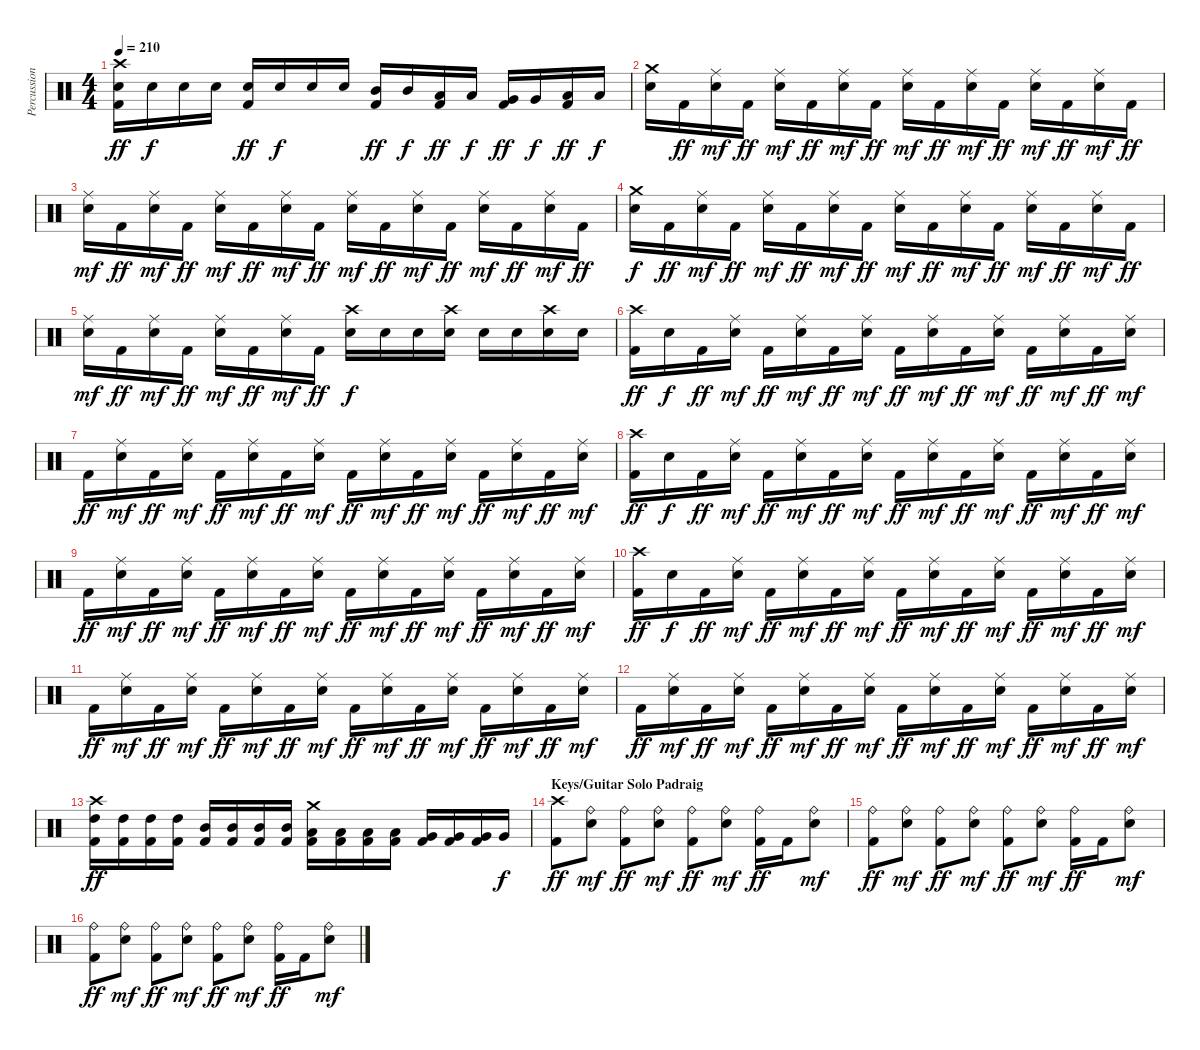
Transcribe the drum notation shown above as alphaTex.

\track ("Percussion" "Percussion") {instrument percussion}
\staff {score}
\articulation defaults
\ts (4 4)
\tempo 210
\clef neutral
\ks c
("Crash high (hit)" "Snare (hit) 2" "Kick (hit) 2").16{dy ff} "Snare (hit) 2".16{dy f} "Snare (hit) 2".16 "Snare (hit) 2".16 ("Snare (hit) 2" "Kick (hit) 2").16{dy ff} "Snare (hit) 2".16{dy f} "Snare (hit) 2".16 "Snare (hit) 2".16 ("Mid Tom (hit)" "Kick (hit) 2").16{dy ff} "Mid Tom (hit)".16{dy f} ("Low Tom (hit)" "Kick (hit) 2").16{dy ff} "Low Tom (hit)".16{dy f} ("Very Low Tom (hit)" "Kick (hit) 2").16{dy ff} "Very Low Tom (hit)".16{dy f} ("Low Floor Tom (hit)" "Kick (hit) 2").16{dy ff} "Low Floor Tom (hit)".16{dy f} |
("Crash medium (hit)" "Snare (hit) 2").16 "Kick (hit) 2".16{dy ff} ("Ride (middle)" "Snare (hit) 2").16{dy mf} "Kick (hit) 2".16{dy ff} ("Ride (middle)" "Snare (hit) 2").16{dy mf} "Kick (hit) 2".16{dy ff} ("Ride (middle)" "Snare (hit) 2").16{dy mf} "Kick (hit) 2".16{dy ff} ("Ride (middle)" "Snare (hit) 2").16{dy mf} "Kick (hit) 2".16{dy ff} ("Ride (middle)" "Snare (hit) 2").16{dy mf} "Kick (hit) 2".16{dy ff} ("Ride (middle)" "Snare (hit) 2").16{dy mf} "Kick (hit) 2".16{dy ff} ("Ride (middle)" "Snare (hit) 2").16{dy mf} "Kick (hit) 2".16{dy ff} |
("Ride (middle)" "Snare (hit) 2").16{dy mf} "Kick (hit) 2".16{dy ff} ("Ride (middle)" "Snare (hit) 2").16{dy mf} "Kick (hit) 2".16{dy ff} ("Ride (middle)" "Snare (hit) 2").16{dy mf} "Kick (hit) 2".16{dy ff} ("Ride (middle)" "Snare (hit) 2").16{dy mf} "Kick (hit) 2".16{dy ff} ("Ride (middle)" "Snare (hit) 2").16{dy mf} "Kick (hit) 2".16{dy ff} ("Ride (middle)" "Snare (hit) 2").16{dy mf} "Kick (hit) 2".16{dy ff} ("Ride (middle)" "Snare (hit) 2").16{dy mf} "Kick (hit) 2".16{dy ff} ("Ride (middle)" "Snare (hit) 2").16{dy mf} "Kick (hit) 2".16{dy ff} |
("Crash medium (hit)" "Snare (hit) 2").16{dy f} "Kick (hit) 2".16{dy ff} ("Ride (middle)" "Snare (hit) 2").16{dy mf} "Kick (hit) 2".16{dy ff} ("Ride (middle)" "Snare (hit) 2").16{dy mf} "Kick (hit) 2".16{dy ff} ("Ride (middle)" "Snare (hit) 2").16{dy mf} "Kick (hit) 2".16{dy ff} ("Ride (middle)" "Snare (hit) 2").16{dy mf} "Kick (hit) 2".16{dy ff} ("Ride (middle)" "Snare (hit) 2").16{dy mf} "Kick (hit) 2".16{dy ff} ("Ride (middle)" "Snare (hit) 2").16{dy mf} "Kick (hit) 2".16{dy ff} ("Ride (middle)" "Snare (hit) 2").16{dy mf} "Kick (hit) 2".16{dy ff} |
("Ride (middle)" "Snare (hit) 2").16{dy mf} "Kick (hit) 2".16{dy ff} ("Ride (middle)" "Snare (hit) 2").16{dy mf} "Kick (hit) 2".16{dy ff} ("Ride (middle)" "Snare (hit) 2").16{dy mf} "Kick (hit) 2".16{dy ff} ("Ride (middle)" "Snare (hit) 2").16{dy mf} "Kick (hit) 2".16{dy ff} ("Crash high (hit)" "Snare (hit) 2").16{dy f} "Snare (hit) 2".16 "Snare (hit) 2".16 ("Crash high (hit)" "Snare (hit) 2").16 "Snare (hit) 2".16 "Snare (hit) 2".16 ("Crash high (hit)" "Snare (hit) 2").16 "Snare (hit) 2".16 |
("Crash high (hit)" "Kick (hit) 2").16{dy ff} "Snare (hit) 2".16{dy f} "Kick (hit) 2".16{dy ff} ("Ride (middle)" "Snare (hit) 2").16{dy mf} "Kick (hit) 2".16{dy ff} ("Ride (middle)" "Snare (hit) 2").16{dy mf} "Kick (hit) 2".16{dy ff} ("Ride (middle)" "Snare (hit) 2").16{dy mf} "Kick (hit) 2".16{dy ff} ("Ride (middle)" "Snare (hit) 2").16{dy mf} "Kick (hit) 2".16{dy ff} ("Ride (middle)" "Snare (hit) 2").16{dy mf} "Kick (hit) 2".16{dy ff} ("Ride (middle)" "Snare (hit) 2").16{dy mf} "Kick (hit) 2".16{dy ff} ("Ride (middle)" "Snare (hit) 2").16{dy mf} |
"Kick (hit) 2".16{dy ff} ("Ride (middle)" "Snare (hit) 2").16{dy mf} "Kick (hit) 2".16{dy ff} ("Ride (middle)" "Snare (hit) 2").16{dy mf} "Kick (hit) 2".16{dy ff} ("Ride (middle)" "Snare (hit) 2").16{dy mf} "Kick (hit) 2".16{dy ff} ("Ride (middle)" "Snare (hit) 2").16{dy mf} "Kick (hit) 2".16{dy ff} ("Ride (middle)" "Snare (hit) 2").16{dy mf} "Kick (hit) 2".16{dy ff} ("Ride (middle)" "Snare (hit) 2").16{dy mf} "Kick (hit) 2".16{dy ff} ("Ride (middle)" "Snare (hit) 2").16{dy mf} "Kick (hit) 2".16{dy ff} ("Ride (middle)" "Snare (hit) 2").16{dy mf} |
("Crash high (hit)" "Kick (hit) 2").16{dy ff} "Snare (hit) 2".16{dy f} "Kick (hit) 2".16{dy ff} ("Ride (middle)" "Snare (hit) 2").16{dy mf} "Kick (hit) 2".16{dy ff} ("Ride (middle)" "Snare (hit) 2").16{dy mf} "Kick (hit) 2".16{dy ff} ("Ride (middle)" "Snare (hit) 2").16{dy mf} "Kick (hit) 2".16{dy ff} ("Ride (middle)" "Snare (hit) 2").16{dy mf} "Kick (hit) 2".16{dy ff} ("Ride (middle)" "Snare (hit) 2").16{dy mf} "Kick (hit) 2".16{dy ff} ("Ride (middle)" "Snare (hit) 2").16{dy mf} "Kick (hit) 2".16{dy ff} ("Ride (middle)" "Snare (hit) 2").16{dy mf} |
"Kick (hit) 2".16{dy ff} ("Ride (middle)" "Snare (hit) 2").16{dy mf} "Kick (hit) 2".16{dy ff} ("Ride (middle)" "Snare (hit) 2").16{dy mf} "Kick (hit) 2".16{dy ff} ("Ride (middle)" "Snare (hit) 2").16{dy mf} "Kick (hit) 2".16{dy ff} ("Ride (middle)" "Snare (hit) 2").16{dy mf} "Kick (hit) 2".16{dy ff} ("Ride (middle)" "Snare (hit) 2").16{dy mf} "Kick (hit) 2".16{dy ff} ("Ride (middle)" "Snare (hit) 2").16{dy mf} "Kick (hit) 2".16{dy ff} ("Ride (middle)" "Snare (hit) 2").16{dy mf} "Kick (hit) 2".16{dy ff} ("Ride (middle)" "Snare (hit) 2").16{dy mf} |
("Crash high (hit)" "Kick (hit) 2").16{dy ff} "Snare (hit) 2".16{dy f} "Kick (hit) 2".16{dy ff} ("Ride (middle)" "Snare (hit) 2").16{dy mf} "Kick (hit) 2".16{dy ff} ("Ride (middle)" "Snare (hit) 2").16{dy mf} "Kick (hit) 2".16{dy ff} ("Ride (middle)" "Snare (hit) 2").16{dy mf} "Kick (hit) 2".16{dy ff} ("Ride (middle)" "Snare (hit) 2").16{dy mf} "Kick (hit) 2".16{dy ff} ("Ride (middle)" "Snare (hit) 2").16{dy mf} "Kick (hit) 2".16{dy ff} ("Ride (middle)" "Snare (hit) 2").16{dy mf} "Kick (hit) 2".16{dy ff} ("Ride (middle)" "Snare (hit) 2").16{dy mf} |
"Kick (hit) 2".16{dy ff} ("Ride (middle)" "Snare (hit) 2").16{dy mf} "Kick (hit) 2".16{dy ff} ("Ride (middle)" "Snare (hit) 2").16{dy mf} "Kick (hit) 2".16{dy ff} ("Ride (middle)" "Snare (hit) 2").16{dy mf} "Kick (hit) 2".16{dy ff} ("Ride (middle)" "Snare (hit) 2").16{dy mf} "Kick (hit) 2".16{dy ff} ("Ride (middle)" "Snare (hit) 2").16{dy mf} "Kick (hit) 2".16{dy ff} ("Ride (middle)" "Snare (hit) 2").16{dy mf} "Kick (hit) 2".16{dy ff} ("Ride (middle)" "Snare (hit) 2").16{dy mf} "Kick (hit) 2".16{dy ff} ("Ride (middle)" "Snare (hit) 2").16{dy mf} |
"Kick (hit) 2".16{dy ff} ("Ride (middle)" "Snare (hit) 2").16{dy mf} "Kick (hit) 2".16{dy ff} ("Ride (middle)" "Snare (hit) 2").16{dy mf} "Kick (hit) 2".16{dy ff} ("Ride (middle)" "Snare (hit) 2").16{dy mf} "Kick (hit) 2".16{dy ff} ("Ride (middle)" "Snare (hit) 2").16{dy mf} "Kick (hit) 2".16{dy ff} ("Ride (middle)" "Snare (hit) 2").16{dy mf} "Kick (hit) 2".16{dy ff} ("Ride (middle)" "Snare (hit) 2").16{dy mf} "Kick (hit) 2".16{dy ff} ("Ride (middle)" "Snare (hit) 2").16{dy mf} "Kick (hit) 2".16{dy ff} ("Ride (middle)" "Snare (hit) 2").16{dy mf} |
("Crash high (hit)" "High Tom (hit)" "Kick (hit) 2").16{dy ff} ("High Tom (hit)" "Kick (hit) 2").16 ("High Tom (hit)" "Kick (hit) 2").16 ("High Tom (hit)" "Kick (hit) 2").16 ("Mid Tom (hit)" "Kick (hit) 2").16 ("Mid Tom (hit)" "Kick (hit) 2").16 ("Mid Tom (hit)" "Kick (hit) 2").16 ("Mid Tom (hit)" "Kick (hit) 2").16 ("Crash medium (hit)" "Low Tom (hit)" "Kick (hit) 2").16 ("Low Tom (hit)" "Kick (hit) 2").16 ("Low Tom (hit)" "Kick (hit) 2").16 ("Low Tom (hit)" "Kick (hit) 2").16 ("Very Low Tom (hit)" "Kick (hit) 2").16 ("Very Low Tom (hit)" "Kick (hit) 2").16 ("Very Low Tom (hit)" "Kick (hit) 2").16 "Very Low Tom (hit)".16{dy f} |
\section ("" "Keys/Guitar Solo Padraig")
("Crash high (hit)" "Kick (hit) 2").8{dy ff} ("Ride (bell)" "Snare (hit) 2").8{dy mf} ("Ride (bell)" "Kick (hit) 2").8{dy ff} ("Ride (bell)" "Snare (hit) 2").8{dy mf} ("Ride (bell)" "Kick (hit) 2").8{dy ff} ("Ride (bell)" "Snare (hit) 2").8{dy mf} ("Ride (bell)" "Kick (hit) 2").16{dy ff} "Kick (hit) 2".16 ("Ride (bell)" "Snare (hit) 2").8{dy mf} |
("Ride (bell)" "Kick (hit) 2").8{dy ff} ("Ride (bell)" "Snare (hit) 2").8{dy mf} ("Ride (bell)" "Kick (hit) 2").8{dy ff} ("Ride (bell)" "Snare (hit) 2").8{dy mf} ("Ride (bell)" "Kick (hit) 2").8{dy ff} ("Ride (bell)" "Snare (hit) 2").8{dy mf} ("Ride (bell)" "Kick (hit) 2").16{dy ff} "Kick (hit) 2".16 ("Ride (bell)" "Snare (hit) 2").8{dy mf} |
("Ride (bell)" "Kick (hit) 2").8{dy ff} ("Ride (bell)" "Snare (hit) 2").8{dy mf} ("Ride (bell)" "Kick (hit) 2").8{dy ff} ("Ride (bell)" "Snare (hit) 2").8{dy mf} ("Ride (bell)" "Kick (hit) 2").8{dy ff} ("Ride (bell)" "Snare (hit) 2").8{dy mf} ("Ride (bell)" "Kick (hit) 2").16{dy ff} "Kick (hit) 2".16 ("Ride (bell)" "Snare (hit) 2").8{dy mf}
